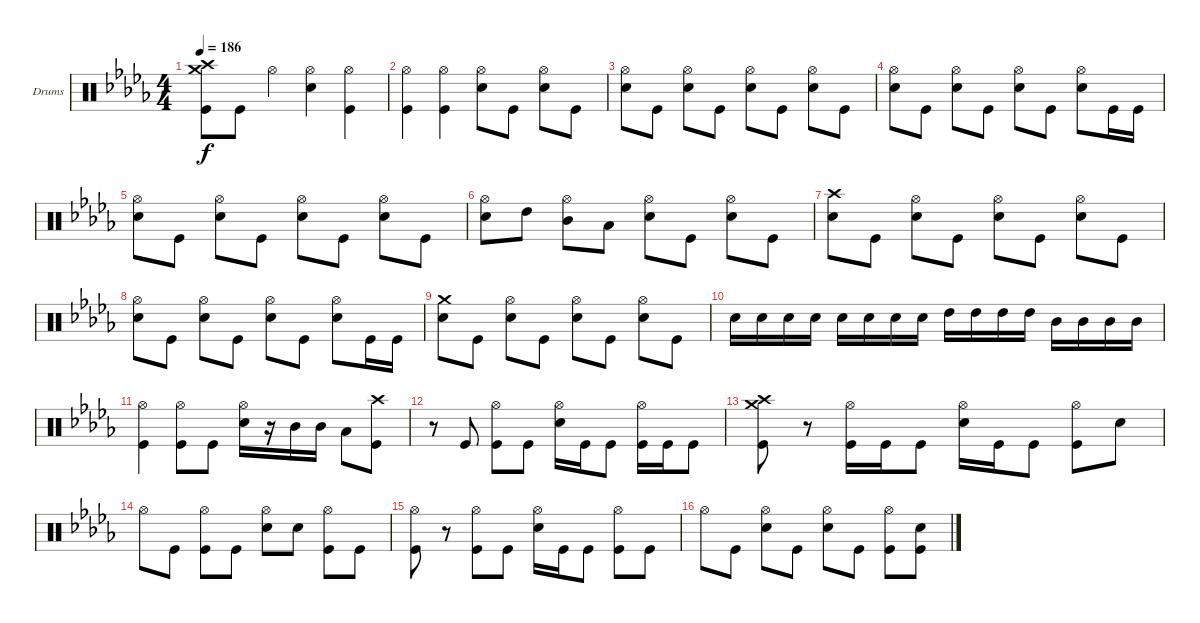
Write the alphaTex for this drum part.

\bracketExtendMode groupsimilarinstruments
\firstSystemTrackNameOrientation horizontal
\otherSystemsTrackNameOrientation horizontal
\track ("Drumkit" "Drums") {instrument percussion}
\staff {score}
\articulation defaults
\ts (4 4)
\tempo 186
\clef neutral
\ks db
("Crash medium (hit)" "Crash high (hit)" "Kick (hit)").8{dy f} "Kick (hit)".8 "Hi-Hat (open)".4 ("Hi-Hat (open)" "Snare (hit) 2").4 ("Hi-Hat (open)" "Kick (hit)").4 |
("Hi-Hat (open)" "Kick (hit)").4 ("Hi-Hat (open)" "Kick (hit)").4 ("Hi-Hat (open)" "Snare (hit) 2").8 "Kick (hit)".8 ("Hi-Hat (open)" "Snare (hit) 2").8 "Kick (hit)".8 |
("Hi-Hat (open)" "Snare (hit) 2").8 "Kick (hit)".8 ("Hi-Hat (open)" "Snare (hit) 2").8 "Kick (hit)".8 ("Hi-Hat (open)" "Snare (hit) 2").8 "Kick (hit)".8 ("Hi-Hat (open)" "Snare (hit) 2").8 "Kick (hit)".8 |
("Hi-Hat (open)" "Snare (hit) 2").8 "Kick (hit)".8 ("Hi-Hat (open)" "Snare (hit) 2").8 "Kick (hit)".8 ("Hi-Hat (open)" "Snare (hit) 2").8 "Kick (hit)".8 ("Hi-Hat (open)" "Snare (hit) 2").8 "Kick (hit)".16 "Kick (hit)".16 |
("Hi-Hat (open)" "Snare (hit) 2").8 "Kick (hit)".8 ("Hi-Hat (open)" "Snare (hit) 2").8 "Kick (hit)".8 ("Hi-Hat (open)" "Snare (hit) 2").8 "Kick (hit)".8 ("Hi-Hat (open)" "Snare (hit) 2").8 "Kick (hit)".8 |
("Hi-Hat (open)" "Snare (hit) 2").8 "High Tom (hit)".8 ("Hi-Hat (open)" "Mid Tom (hit)").8 "Low Tom (hit)".8 ("Hi-Hat (open)" "Snare (hit) 2").8 "Kick (hit)".8 ("Hi-Hat (open)" "Snare (hit) 2").8 "Kick (hit)".8 |
("Crash high (hit)" "Snare (hit) 2").8 "Kick (hit)".8 ("Hi-Hat (open)" "Snare (hit) 2").8 "Kick (hit)".8 ("Hi-Hat (open)" "Snare (hit) 2").8 "Kick (hit)".8 ("Hi-Hat (open)" "Snare (hit) 2").8 "Kick (hit)".8 |
("Hi-Hat (open)" "Snare (hit) 2").8 "Kick (hit)".8 ("Hi-Hat (open)" "Snare (hit) 2").8 "Kick (hit)".8 ("Hi-Hat (open)" "Snare (hit) 2").8 "Kick (hit)".8 ("Hi-Hat (open)" "Snare (hit) 2").8 "Kick (hit)".16 "Kick (hit)".16 |
("Crash medium (hit)" "Snare (hit) 2").8 "Kick (hit)".8 ("Hi-Hat (open)" "Snare (hit) 2").8 "Kick (hit)".8 ("Hi-Hat (open)" "Snare (hit) 2").8 "Kick (hit)".8 ("Hi-Hat (open)" "Snare (hit) 2").8 "Kick (hit)".8 |
"Snare (hit) 2".16 "Snare (hit) 2".16 "Snare (hit) 2".16 "Snare (hit) 2".16 "Snare (hit) 2".16 "Snare (hit) 2".16 "Snare (hit) 2".16 "Snare (hit) 2".16 "High Tom (hit)".16 "High Tom (hit)".16 "High Tom (hit)".16 "High Tom (hit)".16 "Mid Tom (hit)".16 "Mid Tom (hit)".16 "Mid Tom (hit)".16 "Mid Tom (hit)".16 |
("Hi-Hat (open)" "Kick (hit)").4 ("Hi-Hat (open)" "Kick (hit)").8 "Kick (hit)".8 ("Hi-Hat (open)" "Snare (hit) 2").16 r.16 "Mid Tom (hit)".16 "Mid Tom (hit)".16 "Low Tom (hit)".8 ("Crash high (hit)" "Kick (hit)").8 |
r.8 "Kick (hit)".8 ("Hi-Hat (open)" "Kick (hit)").8 "Kick (hit)".8 ("Hi-Hat (open)" "Snare (hit) 2").16 "Kick (hit)".16 "Kick (hit)".8 ("Hi-Hat (open)" "Kick (hit)").16 "Kick (hit)".16 "Kick (hit)".8 |
("Crash high (hit)" "Crash medium (hit)" "Kick (hit)").8 r.8 ("Hi-Hat (open)" "Kick (hit)").16 "Kick (hit)".16 "Kick (hit)".8 ("Hi-Hat (open)" "Snare (hit) 2").16 "Kick (hit)".16 "Kick (hit)".8 ("Hi-Hat (open)" "Kick (hit)").8 "Snare (hit) 2".8 |
"Hi-Hat (open)".8 "Kick (hit)".8 ("Hi-Hat (open)" "Kick (hit)").8 "Kick (hit)".8 ("Hi-Hat (open)" "Snare (hit) 2").8 "Snare (hit) 2".8 ("Hi-Hat (open)" "Kick (hit)").8 "Kick (hit)".8 |
("Hi-Hat (open)" "Kick (hit)").8 r.8 ("Hi-Hat (open)" "Kick (hit)").8 "Kick (hit)".8 ("Hi-Hat (open)" "Snare (hit) 2").16 "Kick (hit)".16 "Kick (hit)".8 ("Hi-Hat (open)" "Kick (hit)").8 "Kick (hit)".8 |
"Hi-Hat (open)".8 "Kick (hit)".8 ("Hi-Hat (open)" "Snare (hit) 2").8 "Kick (hit)".8 ("Hi-Hat (open)" "Snare (hit) 2").8 "Kick (hit)".8 ("Hi-Hat (open)" "Kick (hit)").8 ("Snare (hit) 2" "Kick (hit)").8
